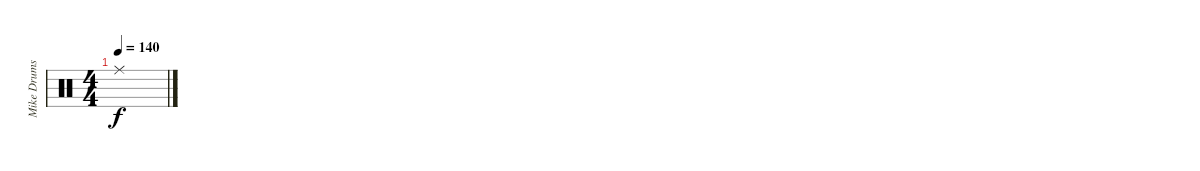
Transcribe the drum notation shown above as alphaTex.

\track ("Mike Drums" "Mike Drums") {instrument percussion}
\staff {score}
\articulation defaults
\ts (4 4)
\tempo 140
\clef neutral
\ks c "Ride (middle)".1{dy f}
